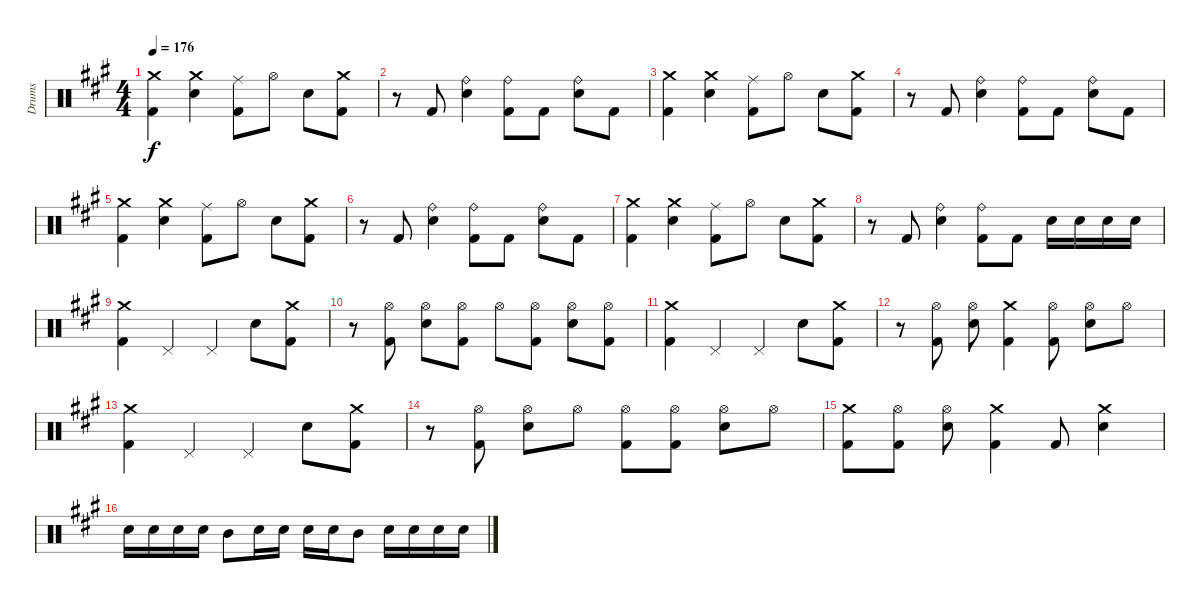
\track ("Drums" "Drums") {instrument percussion}
\staff {score}
\articulation defaults
\ts (4 4)
\tempo 176
\clef neutral
\ks a
("Crash medium (hit)" "Kick (hit) 2").4{dy f} ("Crash medium (hit)" "Electric Snare (hit)").4 ("Ride (middle)" "Kick (hit) 2").8 "Hi-Hat (open)".8 "Electric Snare (hit)".8 ("Crash medium (hit)" "Kick (hit) 2").8 |
r.8 "Kick (hit) 2".8 ("Ride (bell)" "Electric Snare (hit)").4 ("Ride (bell)" "Kick (hit) 2").8 "Kick (hit) 2".8 ("Ride (bell)" "Electric Snare (hit)").8 "Kick (hit) 2".8 |
("Crash medium (hit)" "Kick (hit) 2").4 ("Crash medium (hit)" "Electric Snare (hit)").4 ("Ride (middle)" "Kick (hit) 2").8 "Hi-Hat (open)".8 "Electric Snare (hit)".8 ("Crash medium (hit)" "Kick (hit) 2").8 |
r.8 "Kick (hit) 2".8 ("Ride (bell)" "Electric Snare (hit)").4 ("Ride (bell)" "Kick (hit) 2").8 "Kick (hit) 2".8 ("Ride (bell)" "Electric Snare (hit)").8 "Kick (hit) 2".8 |
("Crash medium (hit)" "Kick (hit) 2").4 ("Crash medium (hit)" "Electric Snare (hit)").4 ("Ride (middle)" "Kick (hit) 2").8 "Hi-Hat (open)".8 "Electric Snare (hit)".8 ("Crash medium (hit)" "Kick (hit) 2").8 |
r.8 "Kick (hit) 2".8 ("Ride (bell)" "Electric Snare (hit)").4 ("Ride (bell)" "Kick (hit) 2").8 "Kick (hit) 2".8 ("Ride (bell)" "Electric Snare (hit)").8 "Kick (hit) 2".8 |
("Crash medium (hit)" "Kick (hit) 2").4 ("Crash medium (hit)" "Electric Snare (hit)").4 ("Ride (middle)" "Kick (hit) 2").8 "Hi-Hat (open)".8 "Electric Snare (hit)".8 ("Crash medium (hit)" "Kick (hit) 2").8 |
r.8 "Kick (hit) 2".8 ("Ride (bell)" "Electric Snare (hit)").4 ("Ride (bell)" "Kick (hit) 2").8 "Kick (hit) 2".8 "Electric Snare (hit)".16 "Electric Snare (hit)".16 "Electric Snare (hit)".16 "Electric Snare (hit)".16 |
("Crash medium (hit)" "Kick (hit) 2").4 "Pedal Hi-Hat (hit)".4 "Pedal Hi-Hat (hit)".4 "Electric Snare (hit)".8 ("Crash medium (hit)" "Kick (hit) 2").8 |
r.8 ("Hi-Hat (open)" "Kick (hit) 2").8 ("Hi-Hat (open)" "Electric Snare (hit)").8 ("Hi-Hat (open)" "Kick (hit) 2").8 "Hi-Hat (open)".8 ("Hi-Hat (open)" "Kick (hit) 2").8 ("Hi-Hat (open)" "Electric Snare (hit)").8 ("Hi-Hat (open)" "Kick (hit) 2").8 |
("Crash medium (hit)" "Kick (hit) 2").4 "Pedal Hi-Hat (hit)".4 "Pedal Hi-Hat (hit)".4 "Electric Snare (hit)".8 ("Crash medium (hit)" "Kick (hit) 2").8 |
r.8 ("Hi-Hat (open)" "Kick (hit) 2").8 ("Hi-Hat (open)" "Electric Snare (hit)").8 ("Crash medium (hit)" "Kick (hit) 2").4 ("Hi-Hat (open)" "Kick (hit) 2").8 ("Hi-Hat (open)" "Electric Snare (hit)").8 "Hi-Hat (open)".8 |
("Crash medium (hit)" "Kick (hit) 2").4 "Pedal Hi-Hat (hit)".4 "Pedal Hi-Hat (hit)".4 "Electric Snare (hit)".8 ("Crash medium (hit)" "Kick (hit) 2").8 |
r.8 ("Hi-Hat (open)" "Kick (hit) 2").8 ("Hi-Hat (open)" "Electric Snare (hit)").8 "Hi-Hat (open)".8 ("Hi-Hat (open)" "Kick (hit) 2").8 ("Hi-Hat (open)" "Kick (hit) 2").8 ("Hi-Hat (open)" "Electric Snare (hit)").8 "Hi-Hat (open)".8 |
("Crash medium (hit)" "Kick (hit) 2").8 ("Hi-Hat (open)" "Kick (hit) 2").8 ("Hi-Hat (open)" "Electric Snare (hit)").8 ("Crash medium (hit)" "Kick (hit) 2").4 "Kick (hit) 2".8 ("Crash medium (hit)" "Electric Snare (hit)").4 |
"Electric Snare (hit)".16 "Electric Snare (hit)".16 "Electric Snare (hit)".16 "Electric Snare (hit)".16 "Mid Tom (hit)".8 "Electric Snare (hit)".16 "Electric Snare (hit)".16 "Electric Snare (hit)".16 "Electric Snare (hit)".16 "Mid Tom (hit)".8 "Electric Snare (hit)".16 "Electric Snare (hit)".16 "Electric Snare (hit)".16 "Electric Snare (hit)".16
